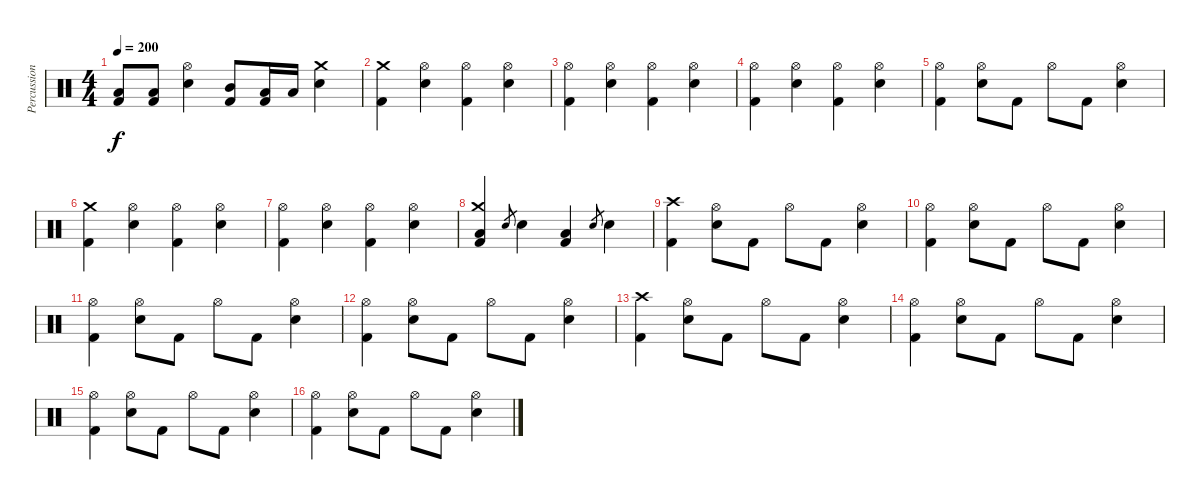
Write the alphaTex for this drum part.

\track ("Percussioni" "Percussion") {instrument percussion}
\staff {score}
\articulation defaults
\ts (4 4)
\tempo 200
\clef neutral
\ks c
("Low Tom (hit)" "Kick (hit) 2").8{dy f} ("Low Tom (hit)" "Kick (hit) 2").8 ("Hi-Hat (open)" "Electric Snare (hit)").4 ("Mid Tom (hit)" "Kick (hit) 2").8 ("Low Tom (hit)" "Kick (hit) 2").16 "Low Tom (hit)".16 ("Crash medium (hit)" "Electric Snare (hit)").4 |
("Crash medium (hit)" "Kick (hit) 2").4 ("Hi-Hat (open)" "Electric Snare (hit)").4 ("Hi-Hat (open)" "Kick (hit) 2").4 ("Hi-Hat (open)" "Electric Snare (hit)").4 |
("Hi-Hat (open)" "Kick (hit) 2").4 ("Hi-Hat (open)" "Electric Snare (hit)").4 ("Hi-Hat (open)" "Kick (hit) 2").4 ("Hi-Hat (open)" "Electric Snare (hit)").4 |
("Hi-Hat (open)" "Kick (hit) 2").4 ("Hi-Hat (open)" "Electric Snare (hit)").4 ("Hi-Hat (open)" "Kick (hit) 2").4 ("Hi-Hat (open)" "Electric Snare (hit)").4 |
("Hi-Hat (open)" "Kick (hit) 2").4 ("Hi-Hat (open)" "Electric Snare (hit)").8 "Kick (hit) 2".8 "Hi-Hat (open)".8 "Kick (hit) 2".8 ("Hi-Hat (open)" "Electric Snare (hit)").4 |
("Crash medium (hit)" "Kick (hit) 2").4 ("Hi-Hat (open)" "Electric Snare (hit)").4 ("Hi-Hat (open)" "Kick (hit) 2").4 ("Hi-Hat (open)" "Electric Snare (hit)").4 |
("Hi-Hat (open)" "Kick (hit) 2").4 ("Hi-Hat (open)" "Electric Snare (hit)").4 ("Hi-Hat (open)" "Kick (hit) 2").4 ("Hi-Hat (open)" "Electric Snare (hit)").4 |
("Crash medium (hit)" "Low Floor Tom (hit)" "Kick (hit) 2").4 "Electric Snare (hit)".8{gr} "Electric Snare (hit)".4 ("Low Floor Tom (hit)" "Kick (hit) 2").4 "Electric Snare (hit)".8{gr} "Electric Snare (hit)".4 |
("Crash high (hit)" "Kick (hit) 2").4 ("Hi-Hat (open)" "Electric Snare (hit)").8 "Kick (hit) 2".8 "Hi-Hat (open)".8 "Kick (hit) 2".8 ("Hi-Hat (open)" "Electric Snare (hit)").4 |
("Hi-Hat (open)" "Kick (hit) 2").4 ("Hi-Hat (open)" "Electric Snare (hit)").8 "Kick (hit) 2".8 "Hi-Hat (open)".8 "Kick (hit) 2".8 ("Hi-Hat (open)" "Electric Snare (hit)").4 |
("Hi-Hat (open)" "Kick (hit) 2").4 ("Hi-Hat (open)" "Electric Snare (hit)").8 "Kick (hit) 2".8 "Hi-Hat (open)".8 "Kick (hit) 2".8 ("Hi-Hat (open)" "Electric Snare (hit)").4 |
("Hi-Hat (open)" "Kick (hit) 2").4 ("Hi-Hat (open)" "Electric Snare (hit)").8 "Kick (hit) 2".8 "Hi-Hat (open)".8 "Kick (hit) 2".8 ("Hi-Hat (open)" "Electric Snare (hit)").4 |
("Crash high (hit)" "Kick (hit) 2").4 ("Hi-Hat (open)" "Electric Snare (hit)").8 "Kick (hit) 2".8 "Hi-Hat (open)".8 "Kick (hit) 2".8 ("Hi-Hat (open)" "Electric Snare (hit)").4 |
("Hi-Hat (open)" "Kick (hit) 2").4 ("Hi-Hat (open)" "Electric Snare (hit)").8 "Kick (hit) 2".8 "Hi-Hat (open)".8 "Kick (hit) 2".8 ("Hi-Hat (open)" "Electric Snare (hit)").4 |
("Hi-Hat (open)" "Kick (hit) 2").4 ("Hi-Hat (open)" "Electric Snare (hit)").8 "Kick (hit) 2".8 "Hi-Hat (open)".8 "Kick (hit) 2".8 ("Hi-Hat (open)" "Electric Snare (hit)").4 |
("Hi-Hat (open)" "Kick (hit) 2").4 ("Hi-Hat (open)" "Electric Snare (hit)").8 "Kick (hit) 2".8 "Hi-Hat (open)".8 "Kick (hit) 2".8 ("Hi-Hat (open)" "Electric Snare (hit)").4
